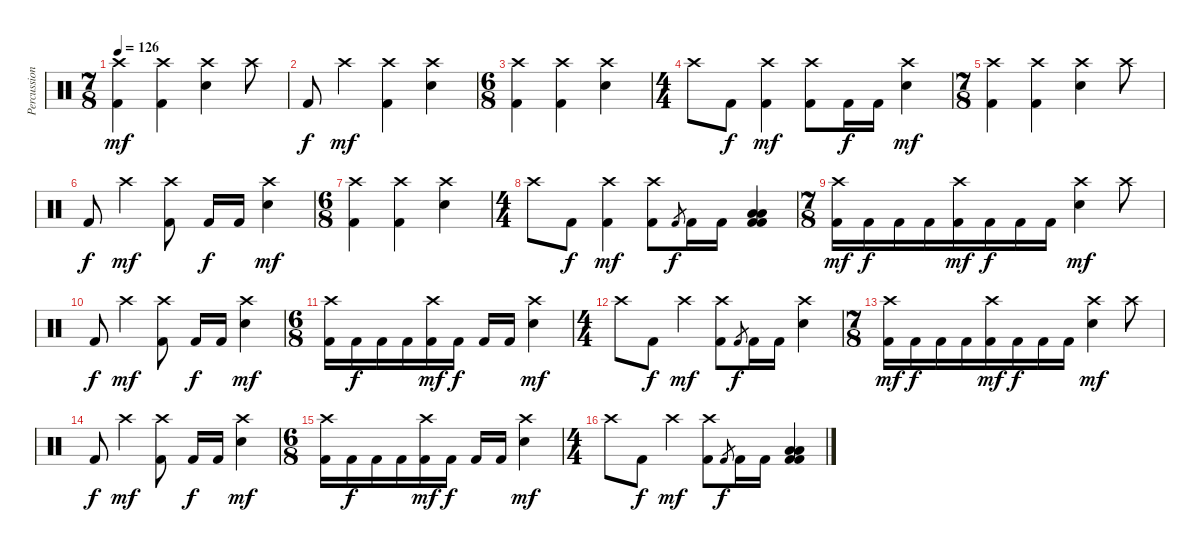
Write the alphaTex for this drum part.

\track ("Percussion" "Percussion") {instrument percussion}
\staff {score}
\articulation defaults
\ts (7 8)
\tempo 126
\clef neutral
\ks c
("Crash high (hit)" "Kick (hit) 2").4{dy mf} ("Crash high (hit)" "Kick (hit) 2").4 ("Crash high (hit)" "Electric Snare (hit)").4 "Crash high (hit)".8 |
"Kick (hit) 2".8{dy f} "Crash high (hit)".4{dy mf} ("Crash high (hit)" "Kick (hit) 2").4 ("Crash high (hit)" "Electric Snare (hit)").4 |
\ts (6 8)
("Crash high (hit)" "Kick (hit) 2").4 ("Crash high (hit)" "Kick (hit) 2").4 ("Crash high (hit)" "Electric Snare (hit)").4 |
\ts (4 4)
"Crash high (hit)".8 "Kick (hit) 2".8{dy f} ("Crash high (hit)" "Kick (hit) 2").4{dy mf} ("Crash high (hit)" "Kick (hit) 2").8 "Kick (hit) 2".16{dy f} "Kick (hit) 2".16 ("Crash high (hit)" "Electric Snare (hit)").4{dy mf} |
\ts (7 8)
("Crash high (hit)" "Kick (hit) 2").4 ("Crash high (hit)" "Kick (hit) 2").4 ("Crash high (hit)" "Electric Snare (hit)").4 "Crash high (hit)".8 |
"Kick (hit) 2".8{dy f} "Crash high (hit)".4{dy mf} ("Crash high (hit)" "Kick (hit) 2").8 "Kick (hit) 2".16{dy f} "Kick (hit) 2".16 ("Crash high (hit)" "Electric Snare (hit)").4{dy mf} |
\ts (6 8)
("Crash high (hit)" "Kick (hit) 2").4 ("Crash high (hit)" "Kick (hit) 2").4 ("Crash high (hit)" "Electric Snare (hit)").4 |
\ts (4 4)
"Crash high (hit)".8 "Kick (hit) 2".8{dy f} ("Crash high (hit)" "Kick (hit) 2").4{dy mf} ("Crash high (hit)" "Kick (hit) 2").8 "Kick (hit) 2".8{gr dy f} "Kick (hit) 2".16 "Kick (hit) 2".16 ("Low Floor Tom (hit)" "Low Floor Tom (hit)" "Kick (hit) 2" "Kick (hit) 2").4 |
\ts (7 8)
("Crash high (hit)" "Kick (hit) 2").16{dy mf} "Kick (hit) 2".16{dy f} "Kick (hit) 2".16 "Kick (hit) 2".16 ("Crash high (hit)" "Kick (hit) 2").16{dy mf} "Kick (hit) 2".16{dy f} "Kick (hit) 2".16 "Kick (hit) 2".16 ("Crash high (hit)" "Electric Snare (hit)").4{dy mf} "Crash high (hit)".8 |
"Kick (hit) 2".8{dy f} "Crash high (hit)".4{dy mf} ("Crash high (hit)" "Kick (hit) 2").8 "Kick (hit) 2".16{dy f} "Kick (hit) 2".16 ("Crash high (hit)" "Electric Snare (hit)").4{dy mf} |
\ts (6 8)
("Crash high (hit)" "Kick (hit) 2").16 "Kick (hit) 2".16{dy f} "Kick (hit) 2".16 "Kick (hit) 2".16 ("Crash high (hit)" "Kick (hit) 2").16{dy mf} "Kick (hit) 2".16{dy f} "Kick (hit) 2".16 "Kick (hit) 2".16 ("Crash high (hit)" "Electric Snare (hit)").4{dy mf} |
\ts (4 4)
"Crash high (hit)".8 "Kick (hit) 2".8{dy f} "Crash high (hit)".4{dy mf} ("Crash high (hit)" "Kick (hit) 2").8 "Kick (hit) 2".8{gr dy f} "Kick (hit) 2".16 "Kick (hit) 2".16 ("Crash high (hit)" "Electric Snare (hit)").4 |
\ts (7 8)
("Crash high (hit)" "Kick (hit) 2").16{dy mf} "Kick (hit) 2".16{dy f} "Kick (hit) 2".16 "Kick (hit) 2".16 ("Crash high (hit)" "Kick (hit) 2").16{dy mf} "Kick (hit) 2".16{dy f} "Kick (hit) 2".16 "Kick (hit) 2".16 ("Crash high (hit)" "Electric Snare (hit)").4{dy mf} "Crash high (hit)".8 |
"Kick (hit) 2".8{dy f} "Crash high (hit)".4{dy mf} ("Crash high (hit)" "Kick (hit) 2").8 "Kick (hit) 2".16{dy f} "Kick (hit) 2".16 ("Crash high (hit)" "Electric Snare (hit)").4{dy mf} |
\ts (6 8)
("Crash high (hit)" "Kick (hit) 2").16 "Kick (hit) 2".16{dy f} "Kick (hit) 2".16 "Kick (hit) 2".16 ("Crash high (hit)" "Kick (hit) 2").16{dy mf} "Kick (hit) 2".16{dy f} "Kick (hit) 2".16 "Kick (hit) 2".16 ("Crash high (hit)" "Electric Snare (hit)").4{dy mf} |
\ts (4 4)
"Crash high (hit)".8 "Kick (hit) 2".8{dy f} "Crash high (hit)".4{dy mf} ("Crash high (hit)" "Kick (hit) 2").8 "Kick (hit) 2".8{gr dy f} "Kick (hit) 2".16 "Kick (hit) 2".16 ("Low Floor Tom (hit)" "Low Floor Tom (hit)" "Kick (hit) 2" "Kick (hit) 2").4
